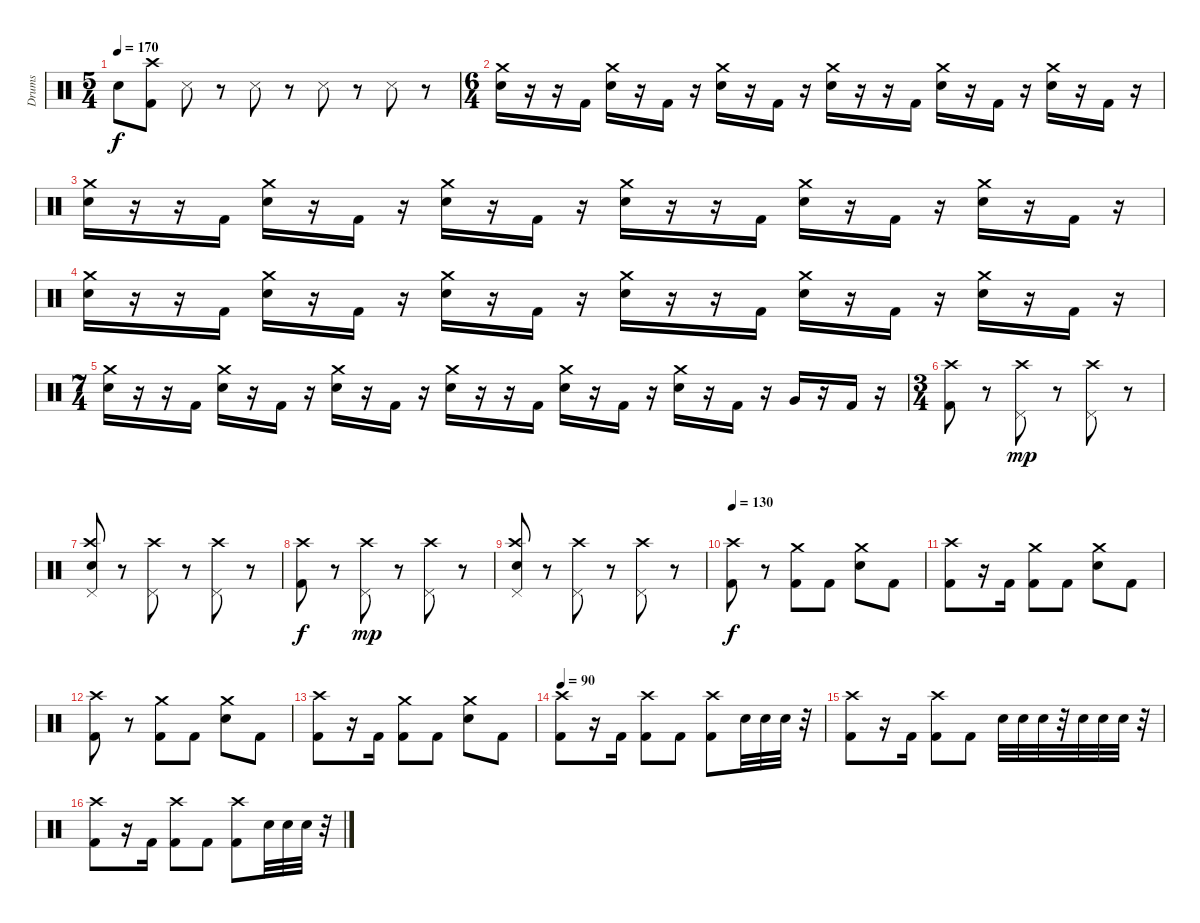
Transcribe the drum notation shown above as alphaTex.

\track ("Drums" "Drums") {instrument percussion}
\staff {score}
\articulation defaults
\ts (5 4)
\tempo 170
\clef neutral
\ks c "Electric Snare (hit)".8{dy f}
("Kick (hit) 2" "Crash high (hit)").8 "Snare (side stick) 3".8 r.8 "Snare (side stick) 3".8 r.8 "Snare (side stick) 3".8 r.8 "Snare (side stick) 3".8 r.8 |
\ts (6 4)
("Crash medium (hit)" "Electric Snare (hit)").16 r.16 r.16 "Kick (hit) 2".16 ("Crash medium (hit)" "Electric Snare (hit)").16 r.16 "Kick (hit) 2".16 r.16 ("Crash medium (hit)" "Electric Snare (hit)").16 r.16 "Kick (hit) 2".16 r.16 ("Crash medium (hit)" "Electric Snare (hit)").16 r.16 r.16 "Kick (hit) 2".16 ("Crash medium (hit)" "Electric Snare (hit)").16 r.16 "Kick (hit) 2".16 r.16 ("Crash medium (hit)" "Electric Snare (hit)").16 r.16 "Kick (hit) 2".16 r.16 |
("Crash medium (hit)" "Electric Snare (hit)").16 r.16 r.16 "Kick (hit) 2".16 ("Crash medium (hit)" "Electric Snare (hit)").16 r.16 "Kick (hit) 2".16 r.16 ("Crash medium (hit)" "Electric Snare (hit)").16 r.16 "Kick (hit) 2".16 r.16 ("Crash medium (hit)" "Electric Snare (hit)").16 r.16 r.16 "Kick (hit) 2".16 ("Crash medium (hit)" "Electric Snare (hit)").16 r.16 "Kick (hit) 2".16 r.16 ("Crash medium (hit)" "Electric Snare (hit)").16 r.16 "Kick (hit) 2".16 r.16 |
("Crash medium (hit)" "Electric Snare (hit)").16 r.16 r.16 "Kick (hit) 2".16 ("Crash medium (hit)" "Electric Snare (hit)").16 r.16 "Kick (hit) 2".16 r.16 ("Crash medium (hit)" "Electric Snare (hit)").16 r.16 "Kick (hit) 2".16 r.16 ("Crash medium (hit)" "Electric Snare (hit)").16 r.16 r.16 "Kick (hit) 2".16 ("Crash medium (hit)" "Electric Snare (hit)").16 r.16 "Kick (hit) 2".16 r.16 ("Crash medium (hit)" "Electric Snare (hit)").16 r.16 "Kick (hit) 2".16 r.16 |
\ts (7 4)
("Crash medium (hit)" "Electric Snare (hit)").16 r.16 r.16 "Kick (hit) 2".16 ("Crash medium (hit)" "Electric Snare (hit)").16 r.16 "Kick (hit) 2".16 r.16 ("Crash medium (hit)" "Electric Snare (hit)").16 r.16 "Kick (hit) 2".16 r.16 ("Crash medium (hit)" "Electric Snare (hit)").16 r.16 r.16 "Kick (hit) 2".16 ("Crash medium (hit)" "Electric Snare (hit)").16 r.16 "Kick (hit) 2".16 r.16 ("Crash medium (hit)" "Electric Snare (hit)").16 r.16 "Kick (hit) 2".16 r.16 "Very Low Tom (hit)".16 r.16 "Kick (hit) 2".16 r.16 |
\ts (3 4)
("Kick (hit) 2" "Crash high (hit)").8 r.8 ("Pedal Hi-Hat (hit)" "Crash high (hit)").8{dy mp} r.8 ("Pedal Hi-Hat (hit)" "Crash high (hit)").8 r.8 |
("Electric Snare (hit)" "Pedal Hi-Hat (hit)" "Crash high (hit)").8 r.8 ("Pedal Hi-Hat (hit)" "Crash high (hit)").8 r.8 ("Pedal Hi-Hat (hit)" "Crash high (hit)").8 r.8 |
("Kick (hit) 2" "Crash high (hit)").8{dy f} r.8 ("Pedal Hi-Hat (hit)" "Crash high (hit)").8{dy mp} r.8 ("Pedal Hi-Hat (hit)" "Crash high (hit)").8 r.8 |
("Electric Snare (hit)" "Pedal Hi-Hat (hit)" "Crash high (hit)").8 r.8 ("Pedal Hi-Hat (hit)" "Crash high (hit)").8 r.8 ("Pedal Hi-Hat (hit)" "Crash high (hit)").8 r.8 |
\tempo 130
("Kick (hit) 2" "Crash high (hit)").8{dy f} r.8 ("Kick (hit) 2" "Crash medium (hit)").8 "Kick (hit) 2".8 ("Electric Snare (hit)" "Crash medium (hit)").8 "Kick (hit) 2".8 |
("Kick (hit) 2" "Crash high (hit)").8 r.16 "Kick (hit) 2".16 ("Kick (hit) 2" "Crash medium (hit)").8 "Kick (hit) 2".8 ("Electric Snare (hit)" "Crash medium (hit)").8 "Kick (hit) 2".8 |
("Kick (hit) 2" "Crash high (hit)").8 r.8 ("Kick (hit) 2" "Crash medium (hit)").8 "Kick (hit) 2".8 ("Electric Snare (hit)" "Crash medium (hit)").8 "Kick (hit) 2".8 |
("Kick (hit) 2" "Crash high (hit)").8 r.16 "Kick (hit) 2".16 ("Kick (hit) 2" "Crash medium (hit)").8 "Kick (hit) 2".8 ("Electric Snare (hit)" "Crash medium (hit)").8 "Kick (hit) 2".8 |
\tempo 95
\tempo 90
("Kick (hit) 2" "Crash high (hit)").8 r.16 "Kick (hit) 2".16 ("Kick (hit) 2" "Crash high (hit)").8 "Kick (hit) 2".8 ("Kick (hit) 2" "Crash high (hit)").8 "Electric Snare (hit)".32 "Electric Snare (hit)".32 "Electric Snare (hit)".32 r.32 |
("Kick (hit) 2" "Crash high (hit)").8 r.16 "Kick (hit) 2".16 ("Kick (hit) 2" "Crash high (hit)").8 "Kick (hit) 2".8 "Electric Snare (hit)".32 "Electric Snare (hit)".32 "Electric Snare (hit)".32 r.32 "Electric Snare (hit)".32 "Electric Snare (hit)".32 "Electric Snare (hit)".32 r.32 |
("Kick (hit) 2" "Crash high (hit)").8 r.16 "Kick (hit) 2".16 ("Kick (hit) 2" "Crash high (hit)").8 "Kick (hit) 2".8 ("Kick (hit) 2" "Crash high (hit)").8 "Electric Snare (hit)".32 "Electric Snare (hit)".32 "Electric Snare (hit)".32 r.32
